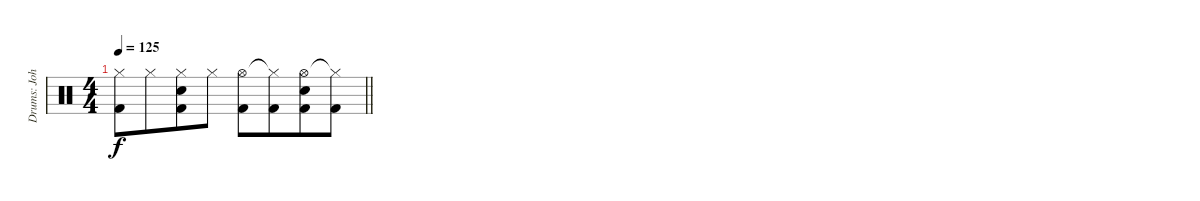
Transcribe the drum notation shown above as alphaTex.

\track ("Drums: John" "Drums: Joh") {instrument percussion}
\staff {score}
\articulation defaults
\ts (4 4)
\tempo 125
\clef neutral
\barLineRight lightlight
\ks c
("Hi-Hat (closed)" "Kick (hit) 2").8{dy f} "Hi-Hat (closed)".8{beam merge} ("Hi-Hat (closed)" "Snare (hit) 2" "Kick (hit) 2").8 "Hi-Hat (closed)".8 ("Hi-Hat (open)" "Kick (hit) 2").8 ("Hi-Hat (closed)"{t} "Kick (hit) 2").8{beam merge} ("Hi-Hat (open)" "Snare (hit) 2" "Kick (hit) 2").8 ("Hi-Hat (closed)"{t} "Kick (hit) 2").8
